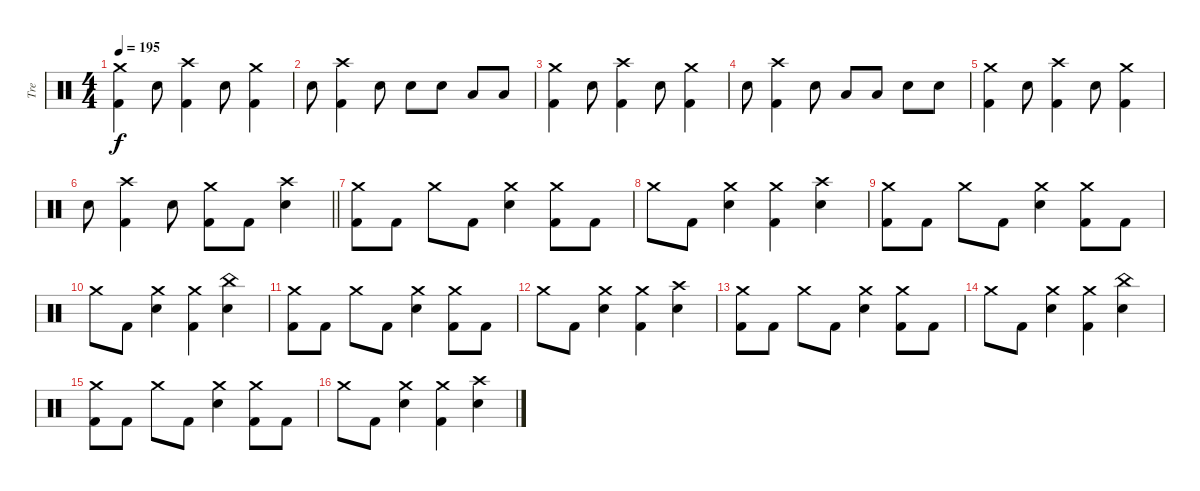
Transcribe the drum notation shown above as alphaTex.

\track ("Tre" "Tre") {instrument percussion}
\staff {score}
\articulation defaults
\ts (4 4)
\tempo 195
\clef neutral
\ks c
("Crash medium (hit)" "Kick (hit) 2").4{dy f} "Snare (hit) 2".8 ("Crash high (hit)" "Kick (hit) 2").4 "Snare (hit) 2".8 ("Crash medium (hit)" "Kick (hit) 2").4 |
"Snare (hit) 2".8 ("Crash high (hit)" "Kick (hit) 2").4 "Snare (hit) 2".8 "Snare (hit) 2".8 "Snare (hit) 2".8 "Low Tom (hit)".8 "Low Tom (hit)".8 |
("Crash medium (hit)" "Kick (hit) 2").4 "Snare (hit) 2".8 ("Crash high (hit)" "Kick (hit) 2").4 "Snare (hit) 2".8 ("Crash medium (hit)" "Kick (hit) 2").4 |
"Snare (hit) 2".8 ("Crash high (hit)" "Kick (hit) 2").4 "Snare (hit) 2".8 "Low Tom (hit)".8 "Low Tom (hit)".8 "Snare (hit) 2".8 "Snare (hit) 2".8 |
("Crash medium (hit)" "Kick (hit) 2").4 "Snare (hit) 2".8 ("Crash high (hit)" "Kick (hit) 2").4 "Snare (hit) 2".8 ("Crash medium (hit)" "Kick (hit) 2").4 |
\barLineRight lightlight "Snare (hit) 2".8
("Crash high (hit)" "Kick (hit) 2").4 "Snare (hit) 2".8 ("Crash medium (hit)" "Kick (hit) 2").8 "Kick (hit) 2".8 ("Crash high (hit)" "Snare (hit) 2").4 |
("Crash medium (hit)" "Kick (hit) 2").8 "Kick (hit) 2".8 "Crash medium (hit)".8 "Kick (hit) 2".8 ("Crash medium (hit)" "Snare (hit) 2").4 ("Crash medium (hit)" "Kick (hit) 2").8 "Kick (hit) 2".8 |
"Crash medium (hit)".8 "Kick (hit) 2".8 ("Crash medium (hit)" "Snare (hit) 2").4 ("Crash medium (hit)" "Kick (hit) 2").4 ("Crash high (hit)" "Snare (hit) 2").4 |
("Crash medium (hit)" "Kick (hit) 2").8 "Kick (hit) 2".8 "Crash medium (hit)".8 "Kick (hit) 2".8 ("Crash medium (hit)" "Snare (hit) 2").4 ("Crash medium (hit)" "Kick (hit) 2").8 "Kick (hit) 2".8 |
"Crash medium (hit)".8 "Kick (hit) 2".8 ("Crash medium (hit)" "Snare (hit) 2").4 ("Crash medium (hit)" "Kick (hit) 2").4 ("China (hit)" "Snare (hit) 2").4 |
("Crash medium (hit)" "Kick (hit) 2").8 "Kick (hit) 2".8 "Crash medium (hit)".8 "Kick (hit) 2".8 ("Crash medium (hit)" "Snare (hit) 2").4 ("Crash medium (hit)" "Kick (hit) 2").8 "Kick (hit) 2".8 |
"Crash medium (hit)".8 "Kick (hit) 2".8 ("Crash medium (hit)" "Snare (hit) 2").4 ("Crash medium (hit)" "Kick (hit) 2").4 ("Crash high (hit)" "Snare (hit) 2").4 |
("Crash medium (hit)" "Kick (hit) 2").8 "Kick (hit) 2".8 "Crash medium (hit)".8 "Kick (hit) 2".8 ("Crash medium (hit)" "Snare (hit) 2").4 ("Crash medium (hit)" "Kick (hit) 2").8 "Kick (hit) 2".8 |
"Crash medium (hit)".8 "Kick (hit) 2".8 ("Crash medium (hit)" "Snare (hit) 2").4 ("Crash medium (hit)" "Kick (hit) 2").4 ("China (hit)" "Snare (hit) 2").4 |
("Crash medium (hit)" "Kick (hit) 2").8 "Kick (hit) 2".8 "Crash medium (hit)".8 "Kick (hit) 2".8 ("Crash medium (hit)" "Snare (hit) 2").4 ("Crash medium (hit)" "Kick (hit) 2").8 "Kick (hit) 2".8 |
"Crash medium (hit)".8 "Kick (hit) 2".8 ("Crash medium (hit)" "Snare (hit) 2").4 ("Crash medium (hit)" "Kick (hit) 2").4 ("Crash high (hit)" "Snare (hit) 2").4
